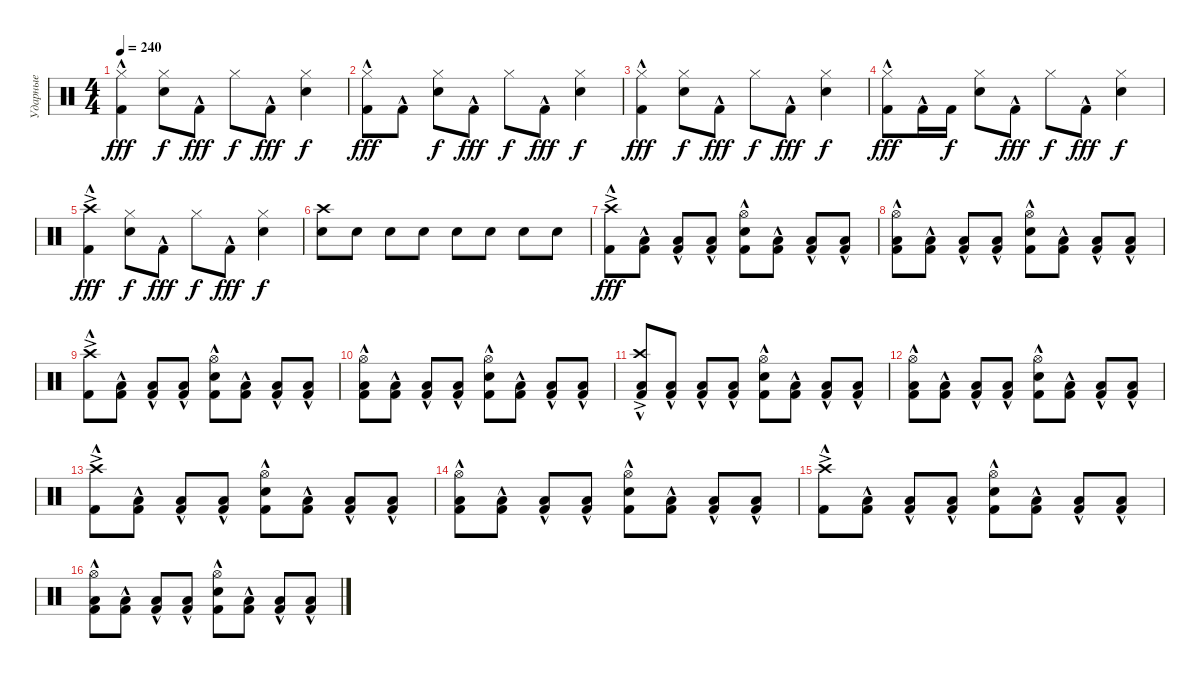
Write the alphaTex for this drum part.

\track ("Ударные" "Ударные") {instrument percussion}
\staff {score}
\articulation defaults
\ts (4 4)
\tempo 240
\clef neutral
\ks c
("Hi-Hat (closed)" "Kick (hit) 2"{hac}).4{dy fff} ("Hi-Hat (closed)" "Snare (hit) 2").8{dy f} "Kick (hit) 2"{hac}.8{dy fff} "Hi-Hat (closed)".8{dy f} "Kick (hit) 2"{hac}.8{dy fff} ("Hi-Hat (closed)" "Snare (hit) 2").4{dy f} |
("Hi-Hat (closed)" "Kick (hit) 2"{hac}).8{dy fff} "Kick (hit) 2"{hac}.8 ("Hi-Hat (closed)" "Snare (hit) 2").8{dy f} "Kick (hit) 2"{hac}.8{dy fff} "Hi-Hat (closed)".8{dy f} "Kick (hit) 2"{hac}.8{dy fff} ("Hi-Hat (closed)" "Snare (hit) 2").4{dy f} |
("Hi-Hat (closed)" "Kick (hit) 2"{hac}).4{dy fff} ("Hi-Hat (closed)" "Snare (hit) 2").8{dy f} "Kick (hit) 2"{hac}.8{dy fff} "Hi-Hat (closed)".8{dy f} "Kick (hit) 2"{hac}.8{dy fff} ("Hi-Hat (closed)" "Snare (hit) 2").4{dy f} |
("Hi-Hat (closed)" "Kick (hit) 2"{hac}).8{dy fff} "Kick (hit) 2"{hac}.16 "Kick (hit) 2".16{dy f} ("Hi-Hat (closed)" "Snare (hit) 2").8 "Kick (hit) 2"{hac}.8{dy fff} "Hi-Hat (closed)".8{dy f} "Kick (hit) 2"{hac}.8{dy fff} ("Hi-Hat (closed)" "Snare (hit) 2").4{dy f} |
("Crash high (hit)"{ac} "Kick (hit) 2"{hac}).4{dy fff} ("Hi-Hat (closed)" "Snare (hit) 2").8{dy f} "Kick (hit) 2"{hac}.8{dy fff} "Hi-Hat (closed)".8{dy f} "Kick (hit) 2"{hac}.8{dy fff} ("Hi-Hat (closed)" "Snare (hit) 2").4{dy f} |
("Crash high (hit)" "Snare (hit) 2").8 "Snare (hit) 2".8 "Snare (hit) 2".8 "Snare (hit) 2".8 "Snare (hit) 2".8 "Snare (hit) 2".8 "Snare (hit) 2".8 "Snare (hit) 2".8 |
("Crash high (hit)"{ac} "Kick (hit) 2"{hac}).8{dy fff} ("Low Floor Tom (hit)" "Kick (hit) 2"{hac}).8 ("Low Floor Tom (hit)" "Kick (hit) 2"{hac}).8 ("Low Floor Tom (hit)" "Kick (hit) 2"{hac}).8 ("Hi-Hat (open)" "Snare (hit) 2" "Kick (hit) 2"{hac}).8 ("Low Floor Tom (hit)" "Kick (hit) 2"{hac}).8 ("Low Floor Tom (hit)" "Kick (hit) 2"{hac}).8 ("Low Floor Tom (hit)" "Kick (hit) 2"{hac}).8 |
("Hi-Hat (open)" "Low Floor Tom (hit)" "Kick (hit) 2"{hac}).8 ("Low Floor Tom (hit)" "Kick (hit) 2"{hac}).8 ("Low Floor Tom (hit)" "Kick (hit) 2"{hac}).8 ("Low Floor Tom (hit)" "Kick (hit) 2"{hac}).8 ("Hi-Hat (open)" "Snare (hit) 2" "Kick (hit) 2"{hac}).8 ("Low Floor Tom (hit)" "Kick (hit) 2"{hac}).8 ("Low Floor Tom (hit)" "Kick (hit) 2"{hac}).8 ("Low Floor Tom (hit)" "Kick (hit) 2"{hac}).8 |
("Crash high (hit)"{ac} "Kick (hit) 2"{hac}).8 ("Low Floor Tom (hit)" "Kick (hit) 2"{hac}).8 ("Low Floor Tom (hit)" "Kick (hit) 2"{hac}).8 ("Low Floor Tom (hit)" "Kick (hit) 2"{hac}).8 ("Hi-Hat (open)" "Snare (hit) 2" "Kick (hit) 2"{hac}).8 ("Low Floor Tom (hit)" "Kick (hit) 2"{hac}).8 ("Low Floor Tom (hit)" "Kick (hit) 2"{hac}).8 ("Low Floor Tom (hit)" "Kick (hit) 2"{hac}).8 |
("Hi-Hat (open)" "Low Floor Tom (hit)" "Kick (hit) 2"{hac}).8 ("Low Floor Tom (hit)" "Kick (hit) 2"{hac}).8 ("Low Floor Tom (hit)" "Kick (hit) 2"{hac}).8 ("Low Floor Tom (hit)" "Kick (hit) 2"{hac}).8 ("Hi-Hat (open)" "Snare (hit) 2" "Kick (hit) 2"{hac}).8 ("Low Floor Tom (hit)" "Kick (hit) 2"{hac}).8 ("Low Floor Tom (hit)" "Kick (hit) 2"{hac}).8 ("Low Floor Tom (hit)" "Kick (hit) 2"{hac}).8 |
("Crash high (hit)"{ac} "Low Floor Tom (hit)" "Kick (hit) 2"{hac}).8 ("Low Floor Tom (hit)" "Kick (hit) 2"{hac}).8 ("Low Floor Tom (hit)" "Kick (hit) 2"{hac}).8 ("Low Floor Tom (hit)" "Kick (hit) 2"{hac}).8 ("Hi-Hat (open)" "Snare (hit) 2" "Kick (hit) 2"{hac}).8 ("Low Floor Tom (hit)" "Kick (hit) 2"{hac}).8 ("Low Floor Tom (hit)" "Kick (hit) 2"{hac}).8 ("Low Floor Tom (hit)" "Kick (hit) 2"{hac}).8 |
("Hi-Hat (open)" "Low Floor Tom (hit)" "Kick (hit) 2"{hac}).8 ("Low Floor Tom (hit)" "Kick (hit) 2"{hac}).8 ("Low Floor Tom (hit)" "Kick (hit) 2"{hac}).8 ("Low Floor Tom (hit)" "Kick (hit) 2"{hac}).8 ("Hi-Hat (open)" "Snare (hit) 2" "Kick (hit) 2"{hac}).8 ("Low Floor Tom (hit)" "Kick (hit) 2"{hac}).8 ("Low Floor Tom (hit)" "Kick (hit) 2"{hac}).8 ("Low Floor Tom (hit)" "Kick (hit) 2"{hac}).8 |
("Crash high (hit)"{ac} "Kick (hit) 2"{hac}).8 ("Low Floor Tom (hit)" "Kick (hit) 2"{hac}).8 ("Low Floor Tom (hit)" "Kick (hit) 2"{hac}).8 ("Low Floor Tom (hit)" "Kick (hit) 2"{hac}).8 ("Hi-Hat (open)" "Snare (hit) 2" "Kick (hit) 2"{hac}).8 ("Low Floor Tom (hit)" "Kick (hit) 2"{hac}).8 ("Low Floor Tom (hit)" "Kick (hit) 2"{hac}).8 ("Low Floor Tom (hit)" "Kick (hit) 2"{hac}).8 |
("Hi-Hat (open)" "Low Floor Tom (hit)" "Kick (hit) 2"{hac}).8 ("Low Floor Tom (hit)" "Kick (hit) 2"{hac}).8 ("Low Floor Tom (hit)" "Kick (hit) 2"{hac}).8 ("Low Floor Tom (hit)" "Kick (hit) 2"{hac}).8 ("Hi-Hat (open)" "Snare (hit) 2" "Kick (hit) 2"{hac}).8 ("Low Floor Tom (hit)" "Kick (hit) 2"{hac}).8 ("Low Floor Tom (hit)" "Kick (hit) 2"{hac}).8 ("Low Floor Tom (hit)" "Kick (hit) 2"{hac}).8 |
("Crash high (hit)"{ac} "Kick (hit) 2"{hac}).8 ("Low Floor Tom (hit)" "Kick (hit) 2"{hac}).8 ("Low Floor Tom (hit)" "Kick (hit) 2"{hac}).8 ("Low Floor Tom (hit)" "Kick (hit) 2"{hac}).8 ("Hi-Hat (open)" "Snare (hit) 2" "Kick (hit) 2"{hac}).8 ("Low Floor Tom (hit)" "Kick (hit) 2"{hac}).8 ("Low Floor Tom (hit)" "Kick (hit) 2"{hac}).8 ("Low Floor Tom (hit)" "Kick (hit) 2"{hac}).8 |
("Hi-Hat (open)" "Low Floor Tom (hit)" "Kick (hit) 2"{hac}).8 ("Low Floor Tom (hit)" "Kick (hit) 2"{hac}).8 ("Low Floor Tom (hit)" "Kick (hit) 2"{hac}).8 ("Low Floor Tom (hit)" "Kick (hit) 2"{hac}).8 ("Hi-Hat (open)" "Snare (hit) 2" "Kick (hit) 2"{hac}).8 ("Low Floor Tom (hit)" "Kick (hit) 2"{hac}).8 ("Low Floor Tom (hit)" "Kick (hit) 2"{hac}).8 ("Low Floor Tom (hit)" "Kick (hit) 2"{hac}).8
